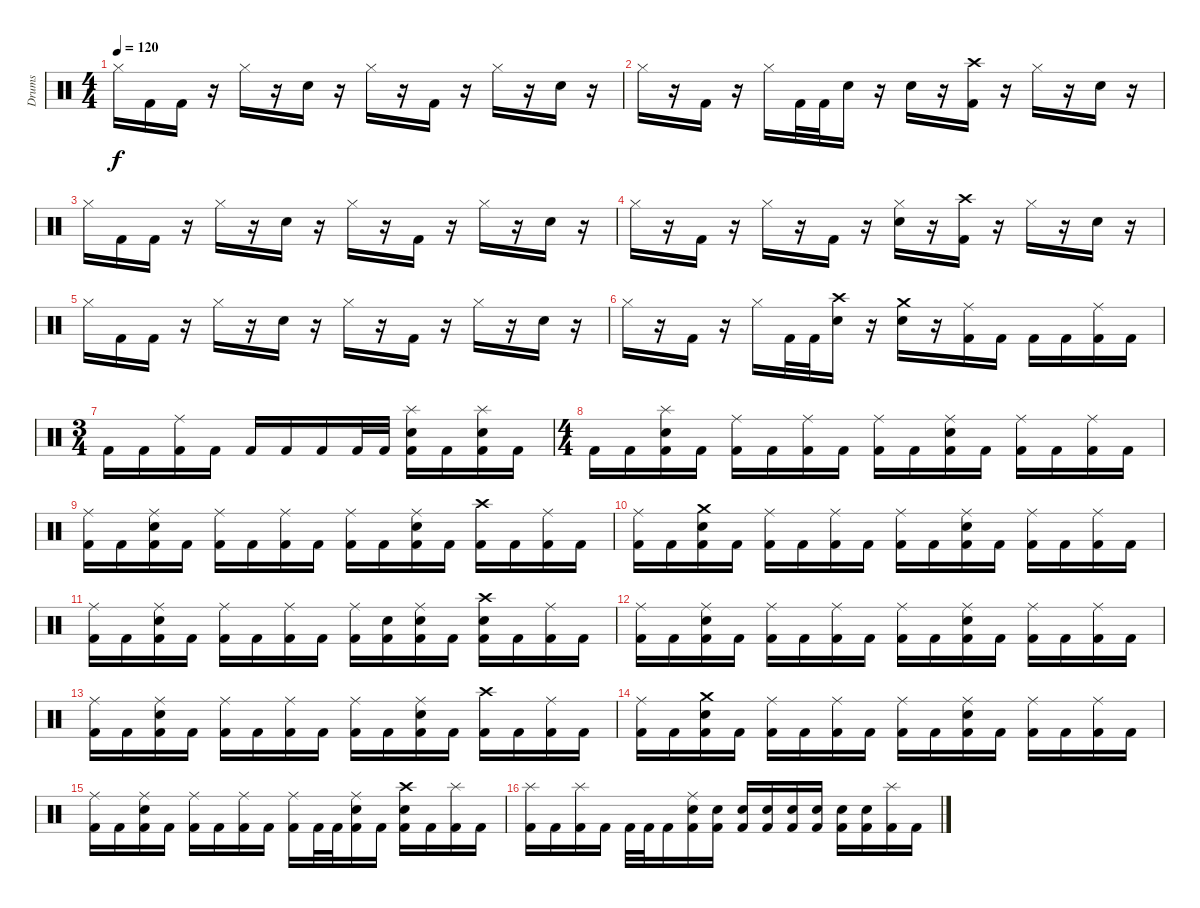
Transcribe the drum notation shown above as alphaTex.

\track ("Drums" "Drums") {instrument percussion}
\staff {score}
\articulation defaults
\ts (4 4)
\tempo 120
\clef neutral
\ks c "Hi-Hat (closed)".16{dy f} "Kick (hit) 2".16 "Kick (hit) 2".16
r.16 "Hi-Hat (closed)".16 r.16 "Snare (hit) 2".16 r.16 "Hi-Hat (closed)".16 r.16 "Kick (hit) 2".16 r.16 "Hi-Hat (closed)".16 r.16 "Snare (hit) 2".16 r.16 |
"Hi-Hat (closed)".16 r.16 "Kick (hit) 2".16 r.16 "Hi-Hat (closed)".16 "Kick (hit) 2".32 "Kick (hit) 2".32 "Snare (hit) 2".16 r.16 "Snare (hit) 2".16 r.16 ("Crash high (hit)" "Kick (hit) 2").16 r.16 "Hi-Hat (closed)".16 r.16 "Snare (hit) 2".16 r.16 |
"Hi-Hat (closed)".16 "Kick (hit) 2".16 "Kick (hit) 2".16 r.16 "Hi-Hat (closed)".16 r.16 "Snare (hit) 2".16 r.16 "Hi-Hat (closed)".16 r.16 "Kick (hit) 2".16 r.16 "Hi-Hat (closed)".16 r.16 "Snare (hit) 2".16 r.16 |
"Hi-Hat (closed)".16 r.16 "Kick (hit) 2".16 r.16 "Hi-Hat (closed)".16 r.16 "Kick (hit) 2".16 r.16 ("Hi-Hat (closed)" "Snare (hit) 2").16 r.16 ("Crash high (hit)" "Kick (hit) 2").16 r.16 "Hi-Hat (closed)".16 r.16 "Snare (hit) 2".16 r.16 |
"Hi-Hat (closed)".16 "Kick (hit) 2".16 "Kick (hit) 2".16 r.16 "Hi-Hat (closed)".16 r.16 "Snare (hit) 2".16 r.16 "Hi-Hat (closed)".16 r.16 "Kick (hit) 2".16 r.16 "Hi-Hat (closed)".16 r.16 "Snare (hit) 2".16 r.16 |
"Hi-Hat (closed)".16 r.16 "Kick (hit) 2".16 r.16 "Hi-Hat (closed)".16 "Kick (hit) 2".32 "Kick (hit) 2".32 ("Crash high (hit)" "Snare (hit) 2").16 r.16 ("Crash medium (hit)" "Snare (hit) 2").16 r.16 ("Ride (middle)" "Kick (hit) 2").16 "Kick (hit) 2".16 "Kick (hit) 2".16 "Kick (hit) 2".16 ("Ride (middle)" "Kick (hit) 2").16 "Kick (hit) 2".16 |
\ts (3 4)
"Kick (hit) 2".16 "Kick (hit) 2".16 ("Ride (middle)" "Kick (hit) 2").16 "Kick (hit) 2".16 "Kick (hit) 2".16 "Kick (hit) 2".16 "Kick (hit) 2".16 "Kick (hit) 2".32 "Kick (hit) 2".32 ("Splash (hit)" "Snare (hit) 2" "Kick (hit) 2").16 "Kick (hit) 2".16 ("Splash (hit)" "Snare (hit) 2" "Kick (hit) 2").16 "Kick (hit) 2".16 |
\ts (4 4)
"Kick (hit) 2".16 "Kick (hit) 2".16 ("Splash (hit)" "Snare (hit) 2" "Kick (hit) 2").16 "Kick (hit) 2".16 ("Ride (middle)" "Kick (hit) 2").16 "Kick (hit) 2".16 ("Ride (middle)" "Kick (hit) 2").16 "Kick (hit) 2".16 ("Ride (middle)" "Kick (hit) 2").16 "Kick (hit) 2".16 ("Ride (middle)" "Snare (hit) 2" "Kick (hit) 2").16 "Kick (hit) 2".16 ("Ride (middle)" "Kick (hit) 2").16 "Kick (hit) 2".16 ("Ride (middle)" "Kick (hit) 2").16 "Kick (hit) 2".16 |
("Ride (middle)" "Kick (hit) 2").16 "Kick (hit) 2".16 ("Ride (middle)" "Snare (hit) 2" "Kick (hit) 2").16 "Kick (hit) 2".16 ("Ride (middle)" "Kick (hit) 2").16 "Kick (hit) 2".16 ("Ride (middle)" "Kick (hit) 2").16 "Kick (hit) 2".16 ("Ride (middle)" "Kick (hit) 2").16 "Kick (hit) 2".16 ("Ride (middle)" "Snare (hit) 2" "Kick (hit) 2").16 "Kick (hit) 2".16 ("Crash high (hit)" "Kick (hit) 2").16 "Kick (hit) 2".16 ("Ride (middle)" "Kick (hit) 2").16 "Kick (hit) 2".16 |
("Ride (middle)" "Kick (hit) 2").16 "Kick (hit) 2".16 ("Crash medium (hit)" "Snare (hit) 2" "Kick (hit) 2").16 "Kick (hit) 2".16 ("Ride (middle)" "Kick (hit) 2").16 "Kick (hit) 2".16 ("Ride (middle)" "Kick (hit) 2").16 "Kick (hit) 2".16 ("Ride (middle)" "Kick (hit) 2").16 "Kick (hit) 2".16 ("Ride (middle)" "Snare (hit) 2" "Kick (hit) 2").16 "Kick (hit) 2".16 ("Ride (middle)" "Kick (hit) 2").16 "Kick (hit) 2".16 ("Ride (middle)" "Kick (hit) 2").16 "Kick (hit) 2".16 |
("Ride (middle)" "Kick (hit) 2").16 "Kick (hit) 2".16 ("Ride (middle)" "Snare (hit) 2" "Kick (hit) 2").16 "Kick (hit) 2".16 ("Ride (middle)" "Kick (hit) 2").16 "Kick (hit) 2".16 ("Ride (middle)" "Kick (hit) 2").16 "Kick (hit) 2".16 ("Ride (middle)" "Kick (hit) 2").16 ("Snare (hit) 2" "Kick (hit) 2").16 ("Ride (middle)" "Snare (hit) 2" "Kick (hit) 2").16 "Kick (hit) 2".16 ("Crash high (hit)" "Snare (hit) 2" "Kick (hit) 2").16 "Kick (hit) 2".16 ("Ride (middle)" "Kick (hit) 2").16 "Kick (hit) 2".16 |
("Ride (middle)" "Kick (hit) 2").16 "Kick (hit) 2".16 ("Ride (middle)" "Snare (hit) 2" "Kick (hit) 2").16 "Kick (hit) 2".16 ("Ride (middle)" "Kick (hit) 2").16 "Kick (hit) 2".16 ("Ride (middle)" "Kick (hit) 2").16 "Kick (hit) 2".16 ("Ride (middle)" "Kick (hit) 2").16 "Kick (hit) 2".16 ("Ride (middle)" "Snare (hit) 2" "Kick (hit) 2").16 "Kick (hit) 2".16 ("Ride (middle)" "Kick (hit) 2").16 "Kick (hit) 2".16 ("Ride (middle)" "Kick (hit) 2").16 "Kick (hit) 2".16 |
("Ride (middle)" "Kick (hit) 2").16 "Kick (hit) 2".16 ("Ride (middle)" "Snare (hit) 2" "Kick (hit) 2").16 "Kick (hit) 2".16 ("Ride (middle)" "Kick (hit) 2").16 "Kick (hit) 2".16 ("Ride (middle)" "Kick (hit) 2").16 "Kick (hit) 2".16 ("Ride (middle)" "Kick (hit) 2").16 "Kick (hit) 2".16 ("Ride (middle)" "Snare (hit) 2" "Kick (hit) 2").16 "Kick (hit) 2".16 ("Crash high (hit)" "Kick (hit) 2").16 "Kick (hit) 2".16 ("Ride (middle)" "Kick (hit) 2").16 "Kick (hit) 2".16 |
("Ride (middle)" "Kick (hit) 2").16 "Kick (hit) 2".16 ("Crash medium (hit)" "Snare (hit) 2" "Kick (hit) 2").16 "Kick (hit) 2".16 ("Ride (middle)" "Kick (hit) 2").16 "Kick (hit) 2".16 ("Ride (middle)" "Kick (hit) 2").16 "Kick (hit) 2".16 ("Ride (middle)" "Kick (hit) 2").16 "Kick (hit) 2".16 ("Ride (middle)" "Snare (hit) 2" "Kick (hit) 2").16 "Kick (hit) 2".16 ("Ride (middle)" "Kick (hit) 2").16 "Kick (hit) 2".16 ("Ride (middle)" "Kick (hit) 2").16 "Kick (hit) 2".16 |
("Ride (middle)" "Kick (hit) 2").16 "Kick (hit) 2".16 ("Ride (middle)" "Snare (hit) 2" "Kick (hit) 2").16 "Kick (hit) 2".16 ("Ride (middle)" "Kick (hit) 2").16 "Kick (hit) 2".16 ("Ride (middle)" "Kick (hit) 2").16 "Kick (hit) 2".16 ("Ride (middle)" "Kick (hit) 2").16 "Kick (hit) 2".32 "Kick (hit) 2".32 ("Ride (middle)" "Snare (hit) 2" "Kick (hit) 2").16 "Kick (hit) 2".16 ("Crash high (hit)" "Snare (hit) 2" "Kick (hit) 2").16 "Kick (hit) 2".16 ("Splash (hit)" "Kick (hit) 2").16 "Kick (hit) 2".16 |
("Splash (hit)" "Kick (hit) 2").16 "Kick (hit) 2".16 ("Splash (hit)" "Kick (hit) 2").16 "Kick (hit) 2".16 "Kick (hit) 2".32 "Kick (hit) 2".32 "Kick (hit) 2".16 ("Ride (middle)" "Snare (hit) 2" "Kick (hit) 2").16 ("Snare (hit) 2" "Kick (hit) 2").16 ("Snare (hit) 2" "Kick (hit) 2").16 ("Snare (hit) 2" "Kick (hit) 2").16 ("Snare (hit) 2" "Kick (hit) 2").16 ("Snare (hit) 2" "Kick (hit) 2").16 ("Snare (hit) 2" "Kick (hit) 2").16 ("Snare (hit) 2" "Kick (hit) 2").16 ("Splash (hit)" "Kick (hit) 2").16 "Kick (hit) 2".16
